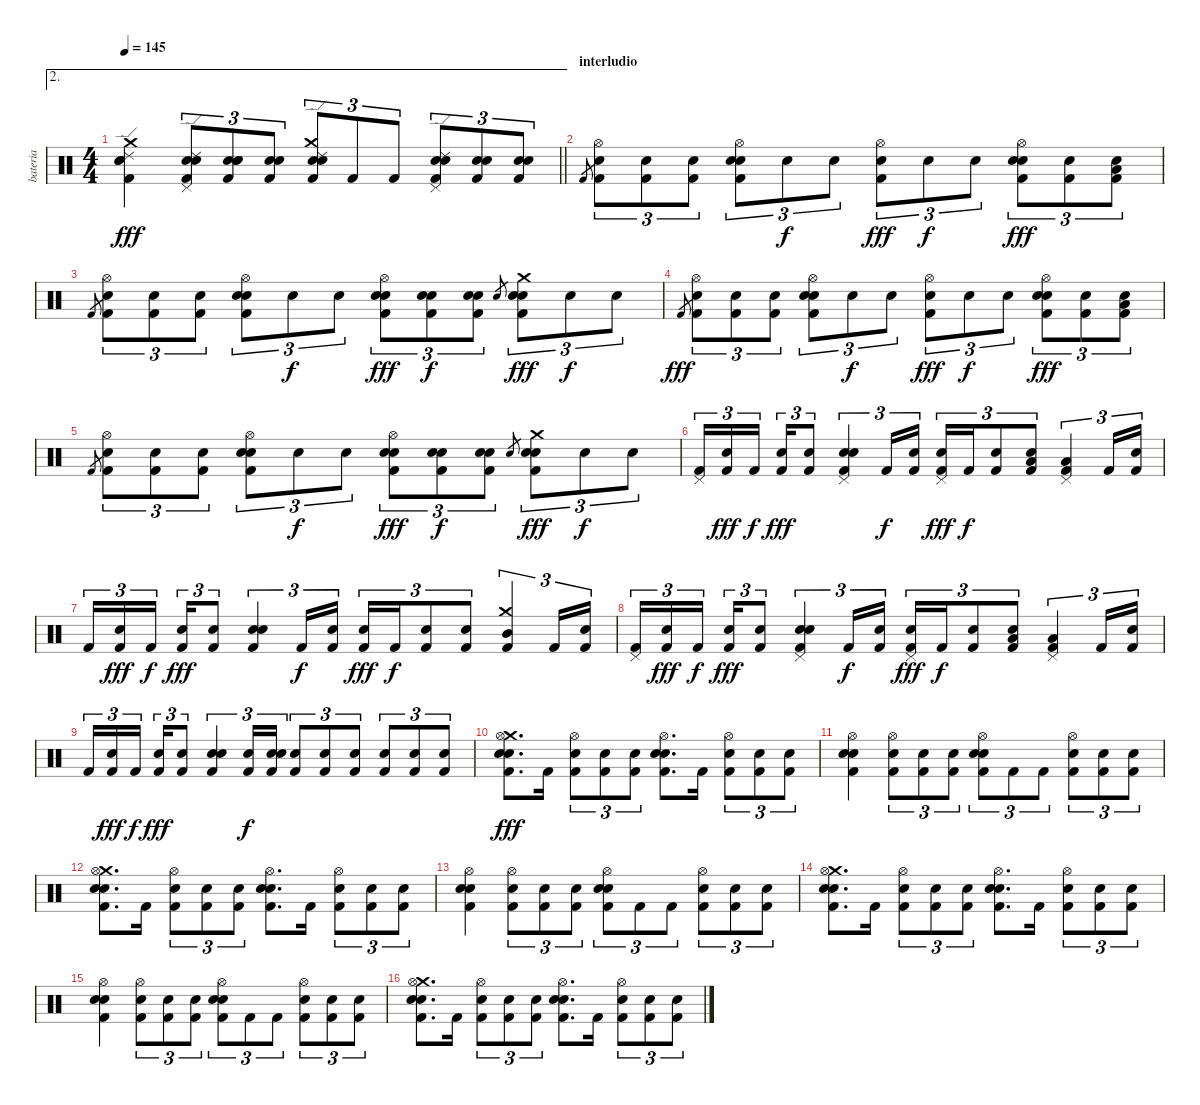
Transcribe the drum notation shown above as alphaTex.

\track ("bateria" "bateria") {instrument percussion}
\staff {score}
\articulation defaults
\ae 2
\ts (4 4)
\tempo 145
\clef neutral
\barLineRight lightlight
\ks c
("Snare (hit)" "Kick (hit) 2" "Snare (hit) 2" "Crash medium (hit)" "Ride (edge) 2").4{dy fff} ("Snare (hit)" "Kick (hit) 2" "Snare (hit) 2" "Ride (edge) 2" "Pedal Hi-Hat (hit)").8{tu (3 2)} ("Snare (hit)" "Kick (hit) 2" "Snare (hit) 2" "Snare (hit)").8{tu (3 2)} ("Snare (hit)" "Kick (hit) 2" "Snare (hit) 2").8{tu (3 2)} ("Snare (hit)" "Kick (hit) 2" "Snare (hit) 2" "Crash medium (hit)" "Ride (edge) 2").8{tu (3 2)} "Kick (hit) 2".8{tu (3 2)} "Kick (hit) 2".8{tu (3 2)} ("Snare (hit)" "Kick (hit) 2" "Snare (hit) 2" "Ride (edge) 2" "Pedal Hi-Hat (hit)").8{tu (3 2)} ("Snare (hit)" "Kick (hit) 2" "Snare (hit) 2").8{tu (3 2)} ("Snare (hit)" "Kick (hit) 2" "Snare (hit) 2").8{tu (3 2)} |
\section ("" "interludio")
"Kick (hit) 2".8{gr} ("Snare (hit)" "Kick (hit) 2" "Hi-Hat (open)").8{tu (3 2)} ("Snare (hit)" "Kick (hit) 2").8{tu (3 2)} ("Snare (hit)" "Kick (hit) 2").8{tu (3 2)} ("Snare (hit)" "Kick (hit) 2" "Snare (hit) 2" "Hi-Hat (open)").8{tu (3 2)} "Snare (hit)".8{tu (3 2) dy f} "Snare (hit)".8{tu (3 2)} ("Snare (hit)" "Kick (hit) 2" "Hi-Hat (open)").8{tu (3 2) dy fff} "Snare (hit)".8{tu (3 2) dy f} "Snare (hit)".8{tu (3 2)} ("Snare (hit)" "Kick (hit) 2" "Snare (hit) 2" "Hi-Hat (open)").8{tu (3 2) dy fff} ("Snare (hit)" "Kick (hit) 2").8{tu (3 2)} ("Snare (hit)" "Kick (hit) 2" "Low Tom (hit)").8{tu (3 2)} |
"Kick (hit) 2".8{gr} ("Snare (hit)" "Kick (hit) 2" "Hi-Hat (open)").8{tu (3 2)} ("Snare (hit)" "Kick (hit) 2").8{tu (3 2)} ("Snare (hit)" "Kick (hit) 2").8{tu (3 2)} ("Snare (hit)" "Kick (hit) 2" "Snare (hit) 2" "Hi-Hat (open)").8{tu (3 2)} "Snare (hit)".8{tu (3 2) dy f} "Snare (hit)".8{tu (3 2)} ("Snare (hit)" "Kick (hit) 2" "Snare (hit) 2" "Hi-Hat (open)").8{tu (3 2) dy fff} ("Snare (hit)" "Kick (hit) 2" "Snare (hit) 2").8{tu (3 2) dy f} ("Snare (hit)" "Kick (hit) 2" "Snare (hit) 2").8{tu (3 2)} "Snare (hit) 2".8{gr} ("Snare (hit)" "Kick (hit) 2" "Snare (hit) 2" "Crash medium (hit)").8{tu (3 2) dy fff} "Snare (hit)".8{tu (3 2) dy f} "Snare (hit)".8{tu (3 2)} |
"Kick (hit) 2".8{gr dy fff} ("Snare (hit)" "Kick (hit) 2" "Hi-Hat (open)").8{tu (3 2)} ("Snare (hit)" "Kick (hit) 2").8{tu (3 2)} ("Snare (hit)" "Kick (hit) 2").8{tu (3 2)} ("Snare (hit)" "Kick (hit) 2" "Snare (hit) 2" "Hi-Hat (open)").8{tu (3 2)} "Snare (hit)".8{tu (3 2) dy f} "Snare (hit)".8{tu (3 2)} ("Snare (hit)" "Kick (hit) 2" "Hi-Hat (open)").8{tu (3 2) dy fff} "Snare (hit)".8{tu (3 2) dy f} "Snare (hit)".8{tu (3 2)} ("Snare (hit)" "Kick (hit) 2" "Snare (hit) 2" "Hi-Hat (open)").8{tu (3 2) dy fff} ("Snare (hit)" "Kick (hit) 2").8{tu (3 2)} ("Snare (hit)" "Kick (hit) 2" "Low Tom (hit)").8{tu (3 2)} |
"Kick (hit) 2".8{gr} ("Snare (hit)" "Kick (hit) 2" "Hi-Hat (open)").8{tu (3 2)} ("Snare (hit)" "Kick (hit) 2").8{tu (3 2)} ("Snare (hit)" "Kick (hit) 2").8{tu (3 2)} ("Snare (hit)" "Kick (hit) 2" "Snare (hit) 2" "Hi-Hat (open)").8{tu (3 2)} "Snare (hit)".8{tu (3 2) dy f} "Snare (hit)".8{tu (3 2)} ("Snare (hit)" "Kick (hit) 2" "Snare (hit) 2" "Hi-Hat (open)").8{tu (3 2) dy fff} ("Snare (hit)" "Kick (hit) 2" "Snare (hit) 2").8{tu (3 2) dy f} ("Snare (hit)" "Kick (hit) 2" "Snare (hit) 2").8{tu (3 2)} "Snare (hit) 2".8{gr} ("Snare (hit)" "Kick (hit) 2" "Snare (hit) 2" "Crash medium (hit)").8{tu (3 2) dy fff} "Snare (hit)".8{tu (3 2) dy f} "Snare (hit)".8{tu (3 2)} |
("Kick (hit) 2" "Pedal Hi-Hat (hit)").16{tu (3 2)} ("Snare (hit)" "Kick (hit) 2").16{tu (3 2) dy fff} "Kick (hit) 2".16{tu (3 2) dy f beam splitsecondary} ("Snare (hit)" "Kick (hit) 2").16{tu (3 2) dy fff} ("Snare (hit)" "Kick (hit) 2").8{tu (3 2)} ("Snare (hit)" "Kick (hit) 2" "Snare (hit) 2" "Pedal Hi-Hat (hit)").4{tu (3 2)} "Kick (hit) 2".16{tu (3 2) dy f} ("Snare (hit)" "Kick (hit) 2").16{tu (3 2)} ("Snare (hit)" "Kick (hit) 2" "Pedal Hi-Hat (hit)").16{tu (3 2) dy fff} "Kick (hit) 2".16{tu (3 2) dy f} ("Snare (hit)" "Kick (hit) 2").8{tu (3 2)} ("Snare (hit)" "Kick (hit) 2" "Low Floor Tom (hit)").8{tu (3 2)} ("Kick (hit) 2" "Low Tom (hit)" "Pedal Hi-Hat (hit)").4{tu (3 2)} "Kick (hit) 2".16{tu (3 2)} ("Snare (hit)" "Kick (hit) 2").16{tu (3 2)} |
"Kick (hit) 2".16{tu (3 2)} ("Snare (hit)" "Kick (hit) 2").16{tu (3 2) dy fff} "Kick (hit) 2".16{tu (3 2) dy f beam splitsecondary} ("Snare (hit)" "Kick (hit) 2").16{tu (3 2) dy fff} ("Snare (hit)" "Kick (hit) 2").8{tu (3 2)} ("Snare (hit)" "Kick (hit) 2" "Snare (hit) 2").4{tu (3 2)} "Kick (hit) 2".16{tu (3 2) dy f} ("Snare (hit)" "Kick (hit) 2").16{tu (3 2)} ("Snare (hit)" "Kick (hit) 2").16{tu (3 2) dy fff} "Kick (hit) 2".16{tu (3 2) dy f} ("Snare (hit)" "Kick (hit) 2").8{tu (3 2)} ("Snare (hit)" "Kick (hit) 2").8{tu (3 2)} ("Kick (hit) 2" "Mid Tom (hit)" "Crash medium (hit)").4{tu (3 2)} "Kick (hit) 2".16{tu (3 2)} ("Snare (hit)" "Kick (hit) 2").16{tu (3 2)} |
("Kick (hit) 2" "Pedal Hi-Hat (hit)").16{tu (3 2)} ("Snare (hit)" "Kick (hit) 2").16{tu (3 2) dy fff} "Kick (hit) 2".16{tu (3 2) dy f beam splitsecondary} ("Snare (hit)" "Kick (hit) 2").16{tu (3 2) dy fff} ("Snare (hit)" "Kick (hit) 2").8{tu (3 2)} ("Snare (hit)" "Kick (hit) 2" "Snare (hit) 2" "Pedal Hi-Hat (hit)").4{tu (3 2)} "Kick (hit) 2".16{tu (3 2) dy f} ("Snare (hit)" "Kick (hit) 2").16{tu (3 2)} ("Snare (hit)" "Kick (hit) 2" "Pedal Hi-Hat (hit)").16{tu (3 2) dy fff} "Kick (hit) 2".16{tu (3 2) dy f} ("Snare (hit)" "Kick (hit) 2").8{tu (3 2)} ("Snare (hit)" "Kick (hit) 2" "Low Floor Tom (hit)").8{tu (3 2)} ("Kick (hit) 2" "Low Tom (hit)" "Pedal Hi-Hat (hit)").4{tu (3 2)} "Kick (hit) 2".16{tu (3 2)} ("Snare (hit)" "Kick (hit) 2").16{tu (3 2)} |
"Kick (hit) 2".16{tu (3 2)} ("Snare (hit)" "Kick (hit) 2").16{tu (3 2) dy fff} "Kick (hit) 2".16{tu (3 2) dy f beam splitsecondary} ("Snare (hit)" "Kick (hit) 2").16{tu (3 2) dy fff} ("Snare (hit)" "Kick (hit) 2").8{tu (3 2)} ("Snare (hit)" "Kick (hit) 2" "Snare (hit) 2").4{tu (3 2)} ("Kick (hit) 2" "Snare (hit) 2").16{tu (3 2) dy f} ("Snare (hit)" "Kick (hit) 2" "Snare (hit) 2").16{tu (3 2)} ("Kick (hit) 2" "Snare (hit) 2").8{tu (3 2)} ("Kick (hit) 2" "Snare (hit) 2").8{tu (3 2)} ("Kick (hit) 2" "Snare (hit) 2").8{tu (3 2)} ("Kick (hit) 2" "Snare (hit) 2").8{tu (3 2)} ("Kick (hit) 2" "Snare (hit) 2").8{tu (3 2)} ("Kick (hit) 2" "Snare (hit) 2").8{tu (3 2)} |
("Snare (hit)" "Kick (hit) 2" "Snare (hit) 2" "Crash medium (hit)" "Hi-Hat (open)").8{d dy fff} "Kick (hit) 2".16 ("Snare (hit)" "Kick (hit) 2" "Hi-Hat (open)").8{tu (3 2)} ("Snare (hit)" "Kick (hit) 2").8{tu (3 2)} ("Snare (hit)" "Kick (hit) 2").8{tu (3 2)} ("Snare (hit)" "Kick (hit) 2" "Snare (hit) 2" "Hi-Hat (open)").8{d} "Kick (hit) 2".16 ("Snare (hit)" "Kick (hit) 2" "Hi-Hat (open)").8{tu (3 2)} ("Snare (hit)" "Kick (hit) 2").8{tu (3 2)} ("Snare (hit)" "Kick (hit) 2").8{tu (3 2)} |
("Snare (hit)" "Kick (hit) 2" "Snare (hit) 2" "Hi-Hat (open)").4 ("Snare (hit)" "Kick (hit) 2" "Hi-Hat (open)").8{tu (3 2)} ("Snare (hit)" "Kick (hit) 2").8{tu (3 2)} ("Snare (hit)" "Kick (hit) 2").8{tu (3 2)} ("Snare (hit)" "Kick (hit) 2" "Snare (hit) 2" "Hi-Hat (open)").8{tu (3 2)} "Kick (hit) 2".8{tu (3 2)} "Kick (hit) 2".8{tu (3 2)} ("Snare (hit)" "Kick (hit) 2" "Hi-Hat (open)").8{tu (3 2)} ("Snare (hit)" "Kick (hit) 2").8{tu (3 2)} ("Snare (hit)" "Kick (hit) 2").8{tu (3 2)} |
("Snare (hit)" "Kick (hit) 2" "Snare (hit) 2" "Crash medium (hit)" "Hi-Hat (open)").8{d} "Kick (hit) 2".16 ("Snare (hit)" "Kick (hit) 2" "Hi-Hat (open)").8{tu (3 2)} ("Snare (hit)" "Kick (hit) 2").8{tu (3 2)} ("Snare (hit)" "Kick (hit) 2").8{tu (3 2)} ("Snare (hit)" "Kick (hit) 2" "Snare (hit) 2" "Hi-Hat (open)").8{d} "Kick (hit) 2".16 ("Snare (hit)" "Kick (hit) 2" "Hi-Hat (open)").8{tu (3 2)} ("Snare (hit)" "Kick (hit) 2").8{tu (3 2)} ("Snare (hit)" "Kick (hit) 2").8{tu (3 2)} |
("Snare (hit)" "Kick (hit) 2" "Snare (hit) 2" "Hi-Hat (open)").4 ("Snare (hit)" "Kick (hit) 2" "Hi-Hat (open)").8{tu (3 2)} ("Snare (hit)" "Kick (hit) 2").8{tu (3 2)} ("Snare (hit)" "Kick (hit) 2").8{tu (3 2)} ("Snare (hit)" "Kick (hit) 2" "Snare (hit) 2" "Hi-Hat (open)").8{tu (3 2)} "Kick (hit) 2".8{tu (3 2)} "Kick (hit) 2".8{tu (3 2)} ("Snare (hit)" "Kick (hit) 2" "Hi-Hat (open)").8{tu (3 2)} ("Snare (hit)" "Kick (hit) 2").8{tu (3 2)} ("Snare (hit)" "Kick (hit) 2").8{tu (3 2)} |
("Snare (hit)" "Kick (hit) 2" "Snare (hit) 2" "Crash medium (hit)" "Hi-Hat (open)").8{d} "Kick (hit) 2".16 ("Snare (hit)" "Kick (hit) 2" "Hi-Hat (open)").8{tu (3 2)} ("Snare (hit)" "Kick (hit) 2").8{tu (3 2)} ("Snare (hit)" "Kick (hit) 2").8{tu (3 2)} ("Snare (hit)" "Kick (hit) 2" "Snare (hit) 2" "Hi-Hat (open)").8{d} "Kick (hit) 2".16 ("Snare (hit)" "Kick (hit) 2" "Hi-Hat (open)").8{tu (3 2)} ("Snare (hit)" "Kick (hit) 2").8{tu (3 2)} ("Snare (hit)" "Kick (hit) 2").8{tu (3 2)} |
("Snare (hit)" "Kick (hit) 2" "Snare (hit) 2" "Hi-Hat (open)").4 ("Snare (hit)" "Kick (hit) 2" "Hi-Hat (open)").8{tu (3 2)} ("Snare (hit)" "Kick (hit) 2").8{tu (3 2)} ("Snare (hit)" "Kick (hit) 2").8{tu (3 2)} ("Snare (hit)" "Kick (hit) 2" "Snare (hit) 2" "Hi-Hat (open)").8{tu (3 2)} "Kick (hit) 2".8{tu (3 2)} "Kick (hit) 2".8{tu (3 2)} ("Snare (hit)" "Kick (hit) 2" "Hi-Hat (open)").8{tu (3 2)} ("Snare (hit)" "Kick (hit) 2").8{tu (3 2)} ("Snare (hit)" "Kick (hit) 2").8{tu (3 2)} |
("Snare (hit)" "Kick (hit) 2" "Snare (hit) 2" "Crash medium (hit)" "Hi-Hat (open)").8{d} "Kick (hit) 2".16 ("Snare (hit)" "Kick (hit) 2" "Hi-Hat (open)").8{tu (3 2)} ("Snare (hit)" "Kick (hit) 2").8{tu (3 2)} ("Snare (hit)" "Kick (hit) 2").8{tu (3 2)} ("Snare (hit)" "Kick (hit) 2" "Snare (hit) 2" "Hi-Hat (open)").8{d} "Kick (hit) 2".16 ("Snare (hit)" "Kick (hit) 2" "Hi-Hat (open)").8{tu (3 2)} ("Snare (hit)" "Kick (hit) 2").8{tu (3 2)} ("Snare (hit)" "Kick (hit) 2").8{tu (3 2)}
